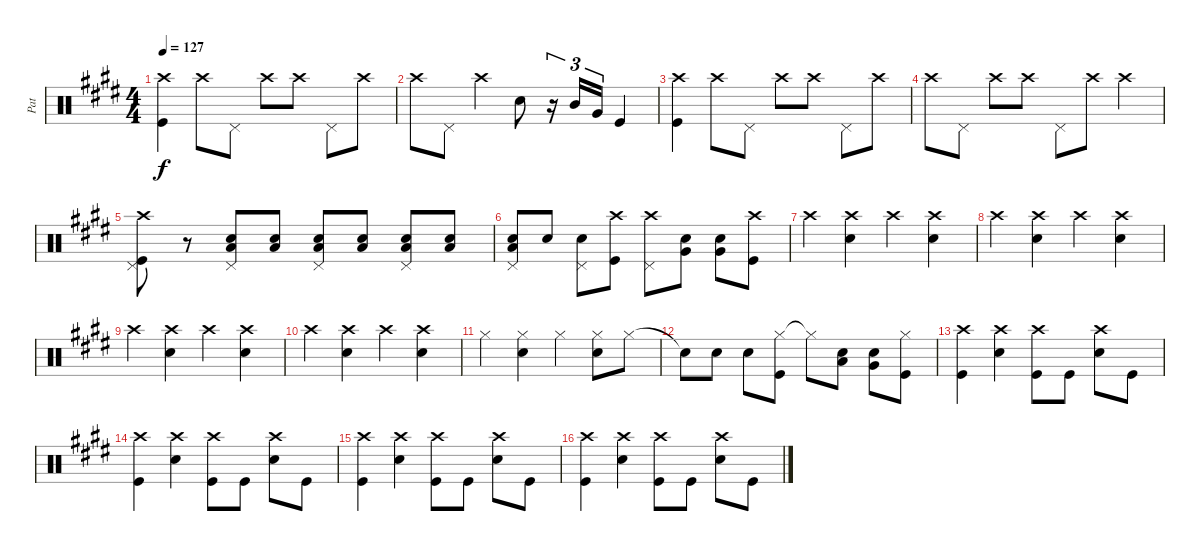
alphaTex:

\track ("Pat" "Pat") {instrument percussion}
\staff {score}
\articulation defaults
\ts (4 4)
\tempo 127
\clef neutral
\ks e
("Crash high (hit)" "Kick (hit)").4{dy f} "Crash high (hit)".8 "Pedal Hi-Hat (hit)".8 "Crash high (hit)".8 "Crash high (hit)".8 "Pedal Hi-Hat (hit)".8 "Crash high (hit)".8 |
"Crash high (hit)".8 "Pedal Hi-Hat (hit)".8 "Crash high (hit)".4 "Snare (hit) 2".8 r.16{tu (3 2)} "Mid Tom (hit)".16{tu (3 2)} "Very Low Tom (hit)".16{tu (3 2)} "Kick (hit)".4 |
("Crash high (hit)" "Kick (hit)").4 "Crash high (hit)".8 "Pedal Hi-Hat (hit)".8 "Crash high (hit)".8 "Crash high (hit)".8 "Pedal Hi-Hat (hit)".8 "Crash high (hit)".8 |
"Crash high (hit)".8 "Pedal Hi-Hat (hit)".8 "Crash high (hit)".8 "Crash high (hit)".8 "Pedal Hi-Hat (hit)".8 "Crash high (hit)".8 "Crash high (hit)".4 |
("Crash high (hit)" "Kick (hit)" "Pedal Hi-Hat (hit)").8 r.8 ("Low Tom (hit)" "Snare (hit) 2" "Pedal Hi-Hat (hit)").8 ("Low Tom (hit)" "Snare (hit) 2").8 ("Low Tom (hit)" "Snare (hit) 2" "Pedal Hi-Hat (hit)").8 ("Low Tom (hit)" "Snare (hit) 2").8 ("Low Tom (hit)" "Snare (hit) 2" "Pedal Hi-Hat (hit)").8 ("Low Tom (hit)" "Snare (hit) 2").8 |
("Low Tom (hit)" "Pedal Hi-Hat (hit)" "Snare (hit) 2").8 "Snare (hit) 2".8 ("Snare (hit) 2" "Pedal Hi-Hat (hit)").8 ("Crash high (hit)" "Kick (hit)").8 ("Crash high (hit)" "Pedal Hi-Hat (hit)").8 ("Very Low Tom (hit)" "Snare (hit) 2").8 ("Very Low Tom (hit)" "Snare (hit) 2").8 ("Crash high (hit)" "Kick (hit)").8 |
"Crash high (hit)".4 ("Crash high (hit)" "Snare (hit) 2").4 "Crash high (hit)".4 ("Crash high (hit)" "Snare (hit) 2").4 |
"Crash high (hit)".4 ("Crash high (hit)" "Snare (hit) 2").4 "Crash high (hit)".4 ("Crash high (hit)" "Snare (hit) 2").4 |
"Crash high (hit)".4 ("Crash high (hit)" "Snare (hit) 2").4 "Crash high (hit)".4 ("Crash high (hit)" "Snare (hit) 2").4 |
"Crash high (hit)".4 ("Crash high (hit)" "Snare (hit) 2").4 "Crash high (hit)".4 ("Crash high (hit)" "Snare (hit) 2").4 |
"Hi-Hat (closed)".4 ("Hi-Hat (closed)" "Snare (hit) 2").4 "Hi-Hat (closed)".4 ("Hi-Hat (closed)" "Snare (hit) 2").8 "Hi-Hat (closed)".8 |
"Snare (hit)"{t}.8 "Snare (hit) 2".8 "Snare (hit) 2".8 ("Hi-Hat (closed)" "Kick (hit)").8 "Hi-Hat (closed)"{t}.8 ("Snare (hit) 2" "Low Tom (hit)").8 ("Snare (hit) 2" "Very Low Tom (hit)").8 ("Hi-Hat (closed)" "Kick (hit)").8 |
("Crash high (hit)" "Kick (hit)").4 ("Crash high (hit)" "Snare (hit) 2").4 ("Crash high (hit)" "Kick (hit)").8 "Kick (hit)".8 ("Crash high (hit)" "Snare (hit) 2").8 "Kick (hit)".8 |
("Crash high (hit)" "Kick (hit)").4 ("Crash high (hit)" "Snare (hit) 2").4 ("Crash high (hit)" "Kick (hit)").8 "Kick (hit)".8 ("Crash high (hit)" "Snare (hit) 2").8 "Kick (hit)".8 |
("Crash high (hit)" "Kick (hit)").4 ("Crash high (hit)" "Snare (hit) 2").4 ("Crash high (hit)" "Kick (hit)").8 "Kick (hit)".8 ("Crash high (hit)" "Snare (hit) 2").8 "Kick (hit)".8 |
("Crash high (hit)" "Kick (hit)").4 ("Crash high (hit)" "Snare (hit) 2").4 ("Crash high (hit)" "Kick (hit)").8 "Kick (hit)".8 ("Crash high (hit)" "Snare (hit) 2").8 "Kick (hit)".8
